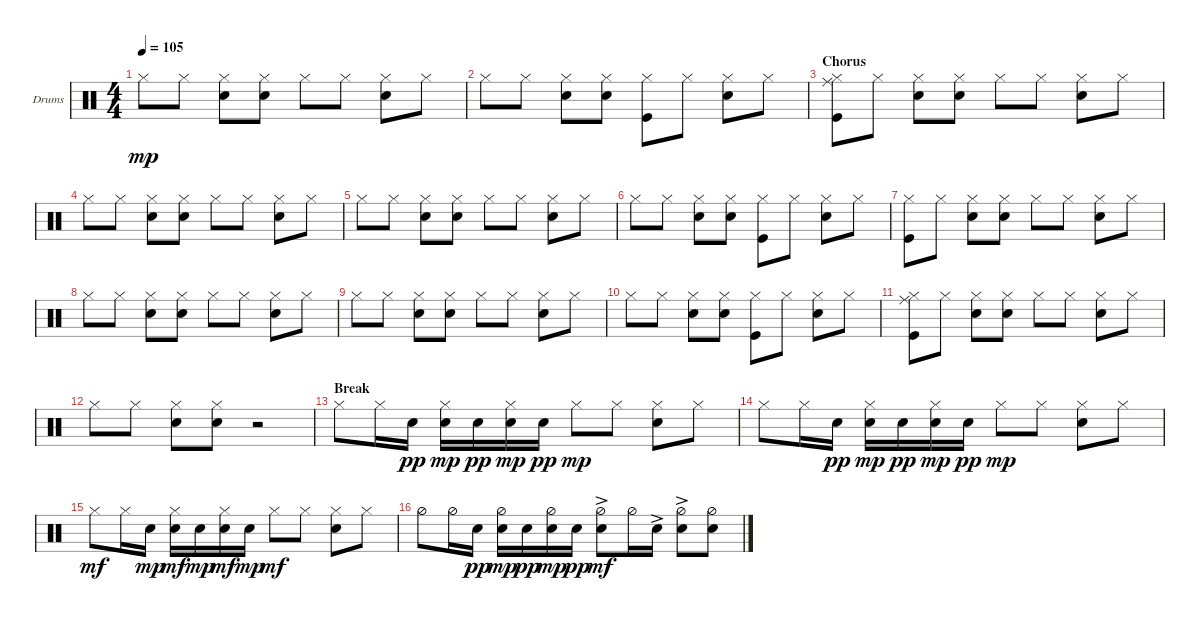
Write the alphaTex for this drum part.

\bracketExtendMode groupsimilarinstruments
\firstSystemTrackNameOrientation horizontal
\otherSystemsTrackNameOrientation horizontal
\track ("Drumkit" "Drums") {instrument percussion}
\staff {score}
\articulation defaults
\ts (4 4)
\tempo 105
\clef neutral
\ks c "Hi-Hat (closed)".8{dy mp} "Hi-Hat (closed)".8
("Snare (hit) 2" "Hi-Hat (closed)").8 ("Hi-Hat (closed)" "Snare (hit) 2").8 "Hi-Hat (closed)".8 "Hi-Hat (closed)".8 ("Snare (hit) 2" "Hi-Hat (closed)").8 "Hi-Hat (closed)".8 |
"Hi-Hat (closed)".8 "Hi-Hat (closed)".8 ("Snare (hit) 2" "Hi-Hat (closed)").8 ("Hi-Hat (closed)" "Snare (hit) 2").8 ("Hi-Hat (closed)" "Kick (hit)").8 "Hi-Hat (closed)".8 ("Snare (hit) 2" "Hi-Hat (closed)").8 "Hi-Hat (closed)".8 |
\section ("" "Chorus")
("Hi-Hat (closed)" "Ride (middle)" "Kick (hit)").8 "Hi-Hat (closed)".8 ("Snare (hit) 2" "Hi-Hat (closed)").8 ("Hi-Hat (closed)" "Snare (hit) 2").8 "Hi-Hat (closed)".8 "Hi-Hat (closed)".8 ("Snare (hit) 2" "Hi-Hat (closed)").8 "Hi-Hat (closed)".8 |
"Hi-Hat (closed)".8 "Hi-Hat (closed)".8 ("Snare (hit) 2" "Hi-Hat (closed)").8 ("Hi-Hat (closed)" "Snare (hit) 2").8 "Hi-Hat (closed)".8 "Hi-Hat (closed)".8 ("Snare (hit) 2" "Hi-Hat (closed)").8 "Hi-Hat (closed)".8 |
"Hi-Hat (closed)".8 "Hi-Hat (closed)".8 ("Snare (hit) 2" "Hi-Hat (closed)").8 ("Hi-Hat (closed)" "Snare (hit) 2").8 "Hi-Hat (closed)".8 "Hi-Hat (closed)".8 ("Snare (hit) 2" "Hi-Hat (closed)").8 "Hi-Hat (closed)".8 |
"Hi-Hat (closed)".8 "Hi-Hat (closed)".8 ("Snare (hit) 2" "Hi-Hat (closed)").8 ("Hi-Hat (closed)" "Snare (hit) 2").8 ("Hi-Hat (closed)" "Kick (hit)").8 "Hi-Hat (closed)".8 ("Snare (hit) 2" "Hi-Hat (closed)").8 "Hi-Hat (closed)".8 |
("Hi-Hat (closed)" "Kick (hit)").8 "Hi-Hat (closed)".8 ("Snare (hit) 2" "Hi-Hat (closed)").8 ("Hi-Hat (closed)" "Snare (hit) 2").8 "Hi-Hat (closed)".8 "Hi-Hat (closed)".8 ("Snare (hit) 2" "Hi-Hat (closed)").8 "Hi-Hat (closed)".8 |
"Hi-Hat (closed)".8 "Hi-Hat (closed)".8 ("Snare (hit) 2" "Hi-Hat (closed)").8 ("Hi-Hat (closed)" "Snare (hit) 2").8 "Hi-Hat (closed)".8 "Hi-Hat (closed)".8 ("Snare (hit) 2" "Hi-Hat (closed)").8 "Hi-Hat (closed)".8 |
"Hi-Hat (closed)".8 "Hi-Hat (closed)".8 ("Snare (hit) 2" "Hi-Hat (closed)").8 ("Hi-Hat (closed)" "Snare (hit) 2").8 "Hi-Hat (closed)".8 "Hi-Hat (closed)".8 ("Snare (hit) 2" "Hi-Hat (closed)").8 "Hi-Hat (closed)".8 |
"Hi-Hat (closed)".8 "Hi-Hat (closed)".8 ("Snare (hit) 2" "Hi-Hat (closed)").8 ("Hi-Hat (closed)" "Snare (hit) 2").8 ("Hi-Hat (closed)" "Kick (hit)").8 "Hi-Hat (closed)".8 ("Snare (hit) 2" "Hi-Hat (closed)").8 "Hi-Hat (closed)".8 |
("Hi-Hat (closed)" "Ride (middle)" "Kick (hit)").8 "Hi-Hat (closed)".8 ("Snare (hit) 2" "Hi-Hat (closed)").8 ("Hi-Hat (closed)" "Snare (hit) 2").8 "Hi-Hat (closed)".8 "Hi-Hat (closed)".8 ("Snare (hit) 2" "Hi-Hat (closed)").8 "Hi-Hat (closed)".8 |
"Hi-Hat (closed)".8 "Hi-Hat (closed)".8 ("Snare (hit) 2" "Hi-Hat (closed)").8 ("Hi-Hat (closed)" "Snare (hit) 2").8 r.2 |
\section ("" "Break")
"Hi-Hat (closed)".8 "Hi-Hat (closed)".16 "Snare (hit) 2".16{dy pp} ("Snare (hit) 2" "Hi-Hat (closed)").16{dy mp} "Snare (hit) 2".16{dy pp} ("Hi-Hat (closed)" "Snare (hit) 2").16{dy mp} "Snare (hit) 2".16{dy pp} "Hi-Hat (closed)".8{dy mp} "Hi-Hat (closed)".8 ("Snare (hit) 2" "Hi-Hat (closed)").8 "Hi-Hat (closed)".8 |
"Hi-Hat (closed)".8 "Hi-Hat (closed)".16 "Snare (hit) 2".16{dy pp} ("Snare (hit) 2" "Hi-Hat (closed)").16{dy mp} "Snare (hit) 2".16{dy pp} ("Hi-Hat (closed)" "Snare (hit) 2").16{dy mp} "Snare (hit) 2".16{dy pp} "Hi-Hat (closed)".8{dy mp} "Hi-Hat (closed)".8 ("Snare (hit) 2" "Hi-Hat (closed)").8 "Hi-Hat (closed)".8 |
"Hi-Hat (closed)".8{dy mf} "Hi-Hat (closed)".16 "Snare (hit) 2".16{dy mp} ("Snare (hit) 2" "Hi-Hat (closed)").16{dy mf} "Snare (hit) 2".16{dy mp} ("Hi-Hat (closed)" "Snare (hit) 2").16{dy mf} "Snare (hit) 2".16{dy mp} "Hi-Hat (closed)".8{dy mf} "Hi-Hat (closed)".8 ("Snare (hit) 2" "Hi-Hat (closed)").8 "Hi-Hat (closed)".8 |
"Hi-Hat (half)".8 "Hi-Hat (half)".16 "Snare (hit) 2".16{dy pp} ("Snare (hit) 2" "Hi-Hat (half)").16{dy mp} "Snare (hit) 2".16{dy pp} ("Hi-Hat (half)" "Snare (hit) 2").16{dy mp} "Snare (hit) 2".16{dy pp} ("Hi-Hat (half)" "Snare (hit) 2"{ac}).8{dy mf} "Hi-Hat (half)".16 "Snare (hit) 2"{ac}.16 ("Hi-Hat (half)" "Snare (hit) 2"{ac}).8 ("Hi-Hat (half)" "Snare (hit) 2").8
